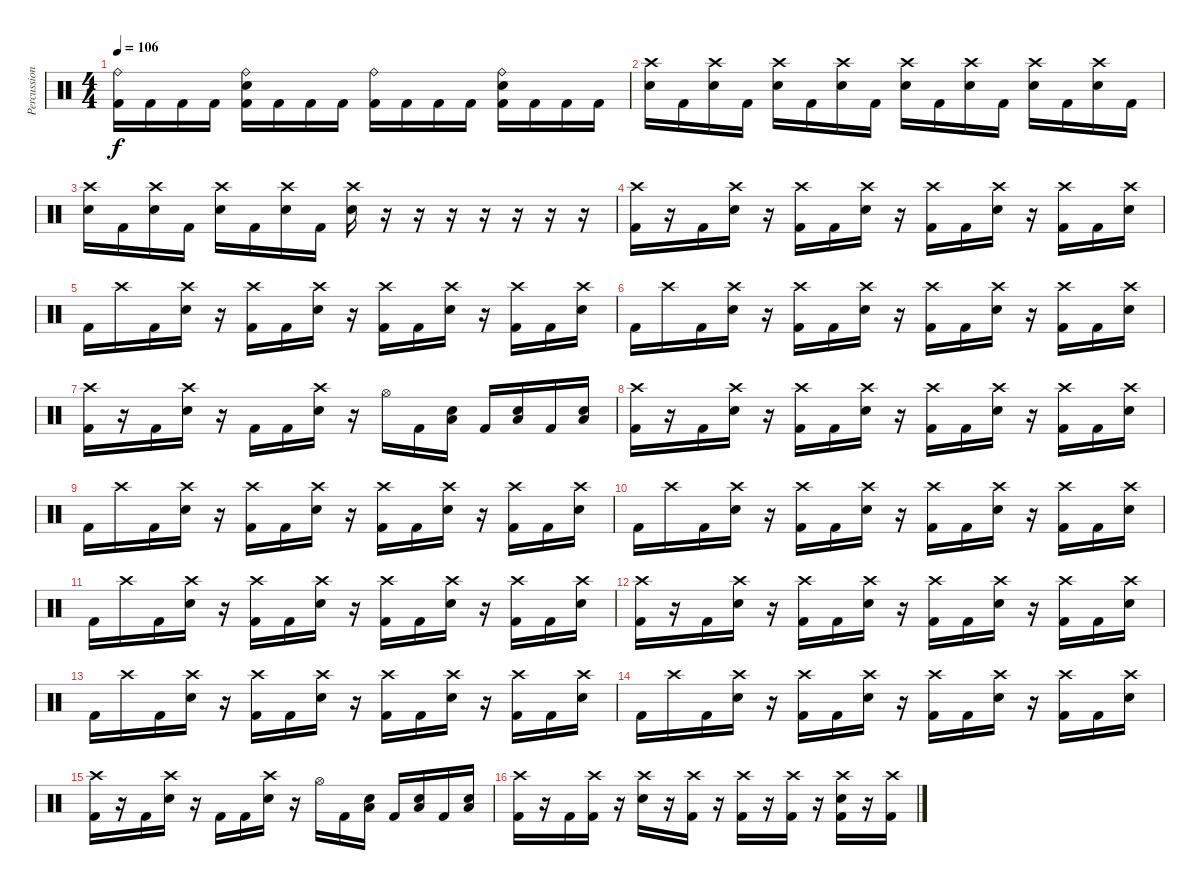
\track ("Percussion" "Percussion") {instrument percussion}
\staff {score}
\articulation defaults
\ts (4 4)
\tempo 106
\clef neutral
\ks c
("Ride (bell)" "Kick (hit) 2").16{dy f} "Kick (hit) 2".16 "Kick (hit) 2".16 "Kick (hit) 2".16 ("Ride (bell)" "Snare (hit) 2" "Kick (hit) 2").16 "Kick (hit) 2".16 "Kick (hit) 2".16 "Kick (hit) 2".16 ("Ride (bell)" "Kick (hit) 2").16 "Kick (hit) 2".16 "Kick (hit) 2".16 "Kick (hit) 2".16 ("Ride (bell)" "Snare (hit) 2" "Kick (hit) 2").16 "Kick (hit) 2".16 "Kick (hit) 2".16 "Kick (hit) 2".16 |
("Crash high (hit)" "Snare (hit) 2").16 "Kick (hit) 2".16 ("Crash high (hit)" "Snare (hit) 2").16 "Kick (hit) 2".16 ("Crash high (hit)" "Snare (hit) 2").16 "Kick (hit) 2".16 ("Crash high (hit)" "Snare (hit) 2").16 "Kick (hit) 2".16 ("Crash high (hit)" "Snare (hit) 2").16 "Kick (hit) 2".16 ("Crash high (hit)" "Snare (hit) 2").16 "Kick (hit) 2".16 ("Crash high (hit)" "Snare (hit) 2").16 "Kick (hit) 2".16 ("Crash high (hit)" "Snare (hit) 2").16 "Kick (hit) 2".16 |
("Crash high (hit)" "Snare (hit) 2").16 "Kick (hit) 2".16 ("Crash high (hit)" "Snare (hit) 2").16 "Kick (hit) 2".16 ("Crash high (hit)" "Snare (hit) 2").16 "Kick (hit) 2".16 ("Crash high (hit)" "Snare (hit) 2").16 "Kick (hit) 2".16 ("Crash high (hit)" "Snare (hit) 2").16 r.16 r.16 r.16 r.16 r.16 r.16 r.16 |
("Crash high (hit)" "Kick (hit) 2").16 r.16 "Kick (hit) 2".16 ("Crash high (hit)" "Snare (hit) 2").16 r.16 ("Crash high (hit)" "Kick (hit) 2").16 "Kick (hit) 2".16 ("Crash high (hit)" "Snare (hit) 2").16 r.16 ("Crash high (hit)" "Kick (hit) 2").16 "Kick (hit) 2".16 ("Crash high (hit)" "Snare (hit) 2").16 r.16 ("Crash high (hit)" "Kick (hit) 2").16 "Kick (hit) 2".16 ("Crash high (hit)" "Snare (hit) 2").16 |
"Kick (hit) 2".16 "Crash high (hit)".16 "Kick (hit) 2".16 ("Crash high (hit)" "Snare (hit) 2").16 r.16 ("Crash high (hit)" "Kick (hit) 2").16 "Kick (hit) 2".16 ("Crash high (hit)" "Snare (hit) 2").16 r.16 ("Crash high (hit)" "Kick (hit) 2").16 "Kick (hit) 2".16 ("Crash high (hit)" "Snare (hit) 2").16 r.16 ("Crash high (hit)" "Kick (hit) 2").16 "Kick (hit) 2".16 ("Crash high (hit)" "Snare (hit) 2").16 |
"Kick (hit) 2".16 "Crash high (hit)".16 "Kick (hit) 2".16 ("Crash high (hit)" "Snare (hit) 2").16 r.16 ("Crash high (hit)" "Kick (hit) 2").16 "Kick (hit) 2".16 ("Crash high (hit)" "Snare (hit) 2").16 r.16 ("Crash high (hit)" "Kick (hit) 2").16 "Kick (hit) 2".16 ("Crash high (hit)" "Snare (hit) 2").16 r.16 ("Crash high (hit)" "Kick (hit) 2").16 "Kick (hit) 2".16 ("Crash high (hit)" "Snare (hit) 2").16 |
("Crash high (hit)" "Kick (hit) 2").16 r.16 "Kick (hit) 2".16 ("Crash high (hit)" "Snare (hit) 2").16 r.16 "Kick (hit) 2".16 "Kick (hit) 2".16 ("Crash high (hit)" "Snare (hit) 2").16 r.16 "Hi-Hat (open)".16 "Kick (hit) 2".16 ("Low Floor Tom (hit)" "Snare (hit) 2").16 "Kick (hit) 2".16 ("Low Floor Tom (hit)" "Snare (hit) 2").16 "Kick (hit) 2".16 ("Low Floor Tom (hit)" "Snare (hit) 2").16 |
("Crash high (hit)" "Kick (hit) 2").16 r.16 "Kick (hit) 2".16 ("Crash high (hit)" "Snare (hit) 2").16 r.16 ("Crash high (hit)" "Kick (hit) 2").16 "Kick (hit) 2".16 ("Crash high (hit)" "Snare (hit) 2").16 r.16 ("Crash high (hit)" "Kick (hit) 2").16 "Kick (hit) 2".16 ("Crash high (hit)" "Snare (hit) 2").16 r.16 ("Crash high (hit)" "Kick (hit) 2").16 "Kick (hit) 2".16 ("Crash high (hit)" "Snare (hit) 2").16 |
"Kick (hit) 2".16 "Crash high (hit)".16 "Kick (hit) 2".16 ("Crash high (hit)" "Snare (hit) 2").16 r.16 ("Crash high (hit)" "Kick (hit) 2").16 "Kick (hit) 2".16 ("Crash high (hit)" "Snare (hit) 2").16 r.16 ("Crash high (hit)" "Kick (hit) 2").16 "Kick (hit) 2".16 ("Crash high (hit)" "Snare (hit) 2").16 r.16 ("Crash high (hit)" "Kick (hit) 2").16 "Kick (hit) 2".16 ("Crash high (hit)" "Snare (hit) 2").16 |
"Kick (hit) 2".16 "Crash high (hit)".16 "Kick (hit) 2".16 ("Crash high (hit)" "Snare (hit) 2").16 r.16 ("Crash high (hit)" "Kick (hit) 2").16 "Kick (hit) 2".16 ("Crash high (hit)" "Snare (hit) 2").16 r.16 ("Crash high (hit)" "Kick (hit) 2").16 "Kick (hit) 2".16 ("Crash high (hit)" "Snare (hit) 2").16 r.16 ("Crash high (hit)" "Kick (hit) 2").16 "Kick (hit) 2".16 ("Crash high (hit)" "Snare (hit) 2").16 |
"Kick (hit) 2".16 "Crash high (hit)".16 "Kick (hit) 2".16 ("Crash high (hit)" "Snare (hit) 2").16 r.16 ("Crash high (hit)" "Kick (hit) 2").16 "Kick (hit) 2".16 ("Crash high (hit)" "Snare (hit) 2").16 r.16 ("Crash high (hit)" "Kick (hit) 2").16 "Kick (hit) 2".16 ("Crash high (hit)" "Snare (hit) 2").16 r.16 ("Crash high (hit)" "Kick (hit) 2").16 "Kick (hit) 2".16 ("Crash high (hit)" "Snare (hit) 2").16 |
("Crash high (hit)" "Kick (hit) 2").16 r.16 "Kick (hit) 2".16 ("Crash high (hit)" "Snare (hit) 2").16 r.16 ("Crash high (hit)" "Kick (hit) 2").16 "Kick (hit) 2".16 ("Crash high (hit)" "Snare (hit) 2").16 r.16 ("Crash high (hit)" "Kick (hit) 2").16 "Kick (hit) 2".16 ("Crash high (hit)" "Snare (hit) 2").16 r.16 ("Crash high (hit)" "Kick (hit) 2").16 "Kick (hit) 2".16 ("Crash high (hit)" "Snare (hit) 2").16 |
"Kick (hit) 2".16 "Crash high (hit)".16 "Kick (hit) 2".16 ("Crash high (hit)" "Snare (hit) 2").16 r.16 ("Crash high (hit)" "Kick (hit) 2").16 "Kick (hit) 2".16 ("Crash high (hit)" "Snare (hit) 2").16 r.16 ("Crash high (hit)" "Kick (hit) 2").16 "Kick (hit) 2".16 ("Crash high (hit)" "Snare (hit) 2").16 r.16 ("Crash high (hit)" "Kick (hit) 2").16 "Kick (hit) 2".16 ("Crash high (hit)" "Snare (hit) 2").16 |
"Kick (hit) 2".16 "Crash high (hit)".16 "Kick (hit) 2".16 ("Crash high (hit)" "Snare (hit) 2").16 r.16 ("Crash high (hit)" "Kick (hit) 2").16 "Kick (hit) 2".16 ("Crash high (hit)" "Snare (hit) 2").16 r.16 ("Crash high (hit)" "Kick (hit) 2").16 "Kick (hit) 2".16 ("Crash high (hit)" "Snare (hit) 2").16 r.16 ("Crash high (hit)" "Kick (hit) 2").16 "Kick (hit) 2".16 ("Crash high (hit)" "Snare (hit) 2").16 |
("Crash high (hit)" "Kick (hit) 2").16 r.16 "Kick (hit) 2".16 ("Crash high (hit)" "Snare (hit) 2").16 r.16 "Kick (hit) 2".16 "Kick (hit) 2".16 ("Crash high (hit)" "Snare (hit) 2").16 r.16 "Hi-Hat (open)".16 "Kick (hit) 2".16 ("Low Floor Tom (hit)" "Snare (hit) 2").16 "Kick (hit) 2".16 ("Low Floor Tom (hit)" "Snare (hit) 2").16 "Kick (hit) 2".16 ("Low Floor Tom (hit)" "Snare (hit) 2").16 |
("Crash high (hit)" "Kick (hit) 2").16 r.16 "Kick (hit) 2".16 ("Crash high (hit)" "Kick (hit) 2").16 r.16 ("Crash high (hit)" "Snare (hit) 2").16 r.16 ("Crash high (hit)" "Kick (hit) 2").16 r.16 ("Crash high (hit)" "Kick (hit) 2").16 r.16 ("Crash high (hit)" "Kick (hit) 2").16 r.16 ("Crash high (hit)" "Snare (hit) 2" "Kick (hit) 2").16 r.16 ("Crash high (hit)" "Kick (hit) 2").16
